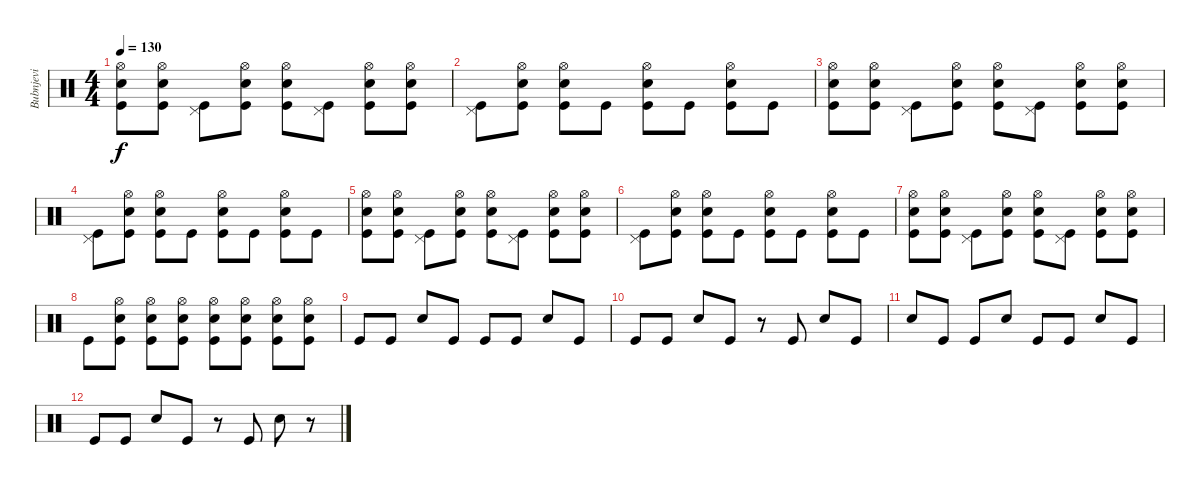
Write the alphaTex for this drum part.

\track ("Bubnjevi" "Bubnjevi") {instrument percussion}
\staff {score}
\articulation defaults
\ts (4 4)
\tempo 130
\clef neutral
\ks c
("Hi-Hat (open)" "Snare (hit) 2" "Kick (hit)").8{dy f} ("Hi-Hat (open)" "Snare (hit) 2" "Kick (hit)").8 ("Pedal Hi-Hat (hit)" "Kick (hit)").8 ("Hi-Hat (open)" "Snare (hit) 2" "Kick (hit)").8 ("Hi-Hat (open)" "Snare (hit) 2" "Kick (hit)").8 ("Pedal Hi-Hat (hit)" "Kick (hit)").8 ("Hi-Hat (open)" "Snare (hit) 2" "Kick (hit)").8 ("Hi-Hat (open)" "Snare (hit) 2" "Kick (hit)").8 |
("Pedal Hi-Hat (hit)" "Kick (hit)").8 ("Hi-Hat (open)" "Snare (hit) 2" "Kick (hit)").8 ("Hi-Hat (open)" "Snare (hit) 2" "Kick (hit)").8 "Kick (hit)".8 ("Hi-Hat (open)" "Snare (hit) 2" "Kick (hit)").8 "Kick (hit)".8 ("Hi-Hat (open)" "Snare (hit) 2" "Kick (hit)").8 "Kick (hit)".8 |
("Hi-Hat (open)" "Snare (hit) 2" "Kick (hit)").8 ("Hi-Hat (open)" "Snare (hit) 2" "Kick (hit)").8 ("Pedal Hi-Hat (hit)" "Kick (hit)").8 ("Hi-Hat (open)" "Snare (hit) 2" "Kick (hit)").8 ("Hi-Hat (open)" "Snare (hit) 2" "Kick (hit)").8 ("Pedal Hi-Hat (hit)" "Kick (hit)").8 ("Hi-Hat (open)" "Snare (hit) 2" "Kick (hit)").8 ("Hi-Hat (open)" "Snare (hit) 2" "Kick (hit)").8 |
("Pedal Hi-Hat (hit)" "Kick (hit)").8 ("Hi-Hat (open)" "Snare (hit) 2" "Kick (hit)").8 ("Hi-Hat (open)" "Snare (hit) 2" "Kick (hit)").8 "Kick (hit)".8 ("Hi-Hat (open)" "Snare (hit) 2" "Kick (hit)").8 "Kick (hit)".8 ("Hi-Hat (open)" "Snare (hit) 2" "Kick (hit)").8 "Kick (hit)".8 |
("Hi-Hat (open)" "Snare (hit) 2" "Kick (hit)").8 ("Hi-Hat (open)" "Snare (hit) 2" "Kick (hit)").8 ("Pedal Hi-Hat (hit)" "Kick (hit)").8 ("Hi-Hat (open)" "Snare (hit) 2" "Kick (hit)").8 ("Hi-Hat (open)" "Snare (hit) 2" "Kick (hit)").8 ("Pedal Hi-Hat (hit)" "Kick (hit)").8 ("Hi-Hat (open)" "Snare (hit) 2" "Kick (hit)").8 ("Hi-Hat (open)" "Snare (hit) 2" "Kick (hit)").8 |
("Pedal Hi-Hat (hit)" "Kick (hit)").8 ("Hi-Hat (open)" "Snare (hit) 2" "Kick (hit)").8 ("Hi-Hat (open)" "Snare (hit) 2" "Kick (hit)").8 "Kick (hit)".8 ("Hi-Hat (open)" "Snare (hit) 2" "Kick (hit)").8 "Kick (hit)".8 ("Hi-Hat (open)" "Snare (hit) 2" "Kick (hit)").8 "Kick (hit)".8 |
("Hi-Hat (open)" "Snare (hit) 2" "Kick (hit)").8 ("Hi-Hat (open)" "Snare (hit) 2" "Kick (hit)").8 ("Pedal Hi-Hat (hit)" "Kick (hit)").8 ("Hi-Hat (open)" "Snare (hit) 2" "Kick (hit)").8 ("Hi-Hat (open)" "Snare (hit) 2" "Kick (hit)").8 ("Pedal Hi-Hat (hit)" "Kick (hit)").8 ("Hi-Hat (open)" "Snare (hit) 2" "Kick (hit)").8 ("Hi-Hat (open)" "Snare (hit) 2" "Kick (hit)").8 |
"Kick (hit)".8 ("Hi-Hat (open)" "Snare (hit) 2" "Kick (hit)").8 ("Hi-Hat (open)" "Snare (hit) 2" "Kick (hit)").8 ("Hi-Hat (open)" "Snare (hit) 2" "Kick (hit)").8 ("Hi-Hat (open)" "Snare (hit) 2" "Kick (hit)").8 ("Hi-Hat (open)" "Snare (hit) 2" "Kick (hit)").8 ("Hi-Hat (open)" "Snare (hit) 2" "Kick (hit)").8 ("Hi-Hat (open)" "Snare (hit) 2" "Kick (hit)").8 |
"Kick (hit)".8 "Kick (hit)".8 "Snare (hit) 2".8 "Kick (hit)".8 "Kick (hit)".8 "Kick (hit)".8 "Snare (hit) 2".8 "Kick (hit)".8 |
"Kick (hit)".8 "Kick (hit)".8 "Snare (hit) 2".8 "Kick (hit)".8 r.8 "Kick (hit)".8 "Snare (hit) 2".8 "Kick (hit)".8 |
"Snare (hit) 2".8 "Kick (hit)".8 "Kick (hit)".8 "Snare (hit) 2".8 "Kick (hit)".8 "Kick (hit)".8 "Snare (hit) 2".8 "Kick (hit)".8 |
"Kick (hit)".8 "Kick (hit)".8 "Snare (hit) 2".8 "Kick (hit)".8 r.8 "Kick (hit)".8 "Snare (hit) 2".8 r.8
